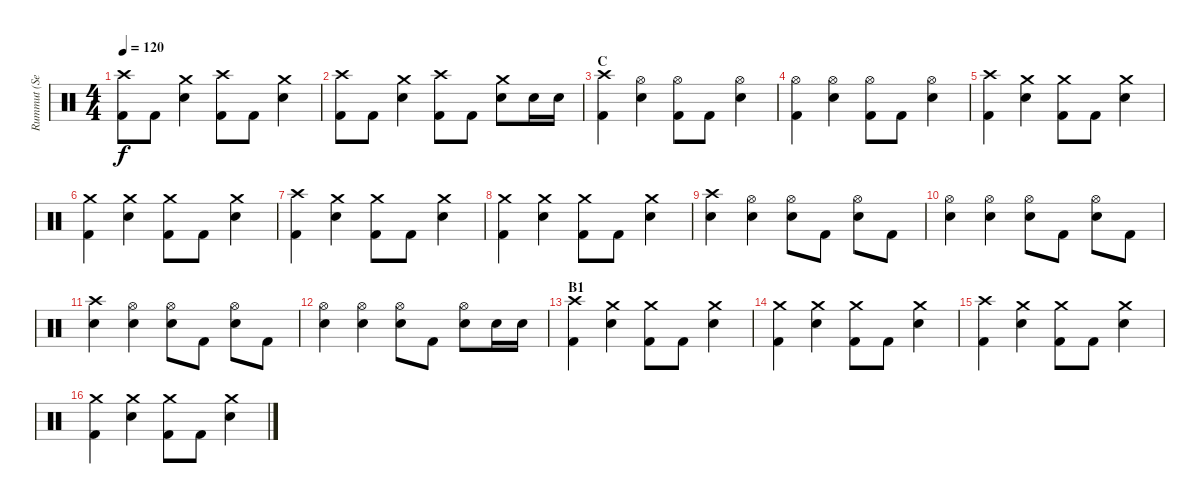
\track ("Rummut (Seppo Pohjolainen)" "Rummut (Se") {instrument percussion}
\staff {score}
\articulation defaults
\ts (4 4)
\tempo 120
\clef neutral
\ks c
("Crash high (hit)" "Kick (hit) 2").8{dy f} "Kick (hit) 2".8 ("Crash medium (hit)" "Electric Snare (hit)").4 ("Crash high (hit)" "Kick (hit) 2").8 "Kick (hit) 2".8 ("Crash medium (hit)" "Electric Snare (hit)").4 |
("Crash high (hit)" "Kick (hit) 2").8 "Kick (hit) 2".8 ("Crash medium (hit)" "Electric Snare (hit)").4 ("Crash high (hit)" "Kick (hit) 2").8 "Kick (hit) 2".8 ("Crash medium (hit)" "Electric Snare (hit)").8 "Electric Snare (hit)".16 "Electric Snare (hit)".16 |
\section ("" "C")
("Crash high (hit)" "Kick (hit) 2").4 ("Hi-Hat (open)" "Electric Snare (hit)").4 ("Hi-Hat (open)" "Kick (hit) 2").8 "Kick (hit) 2".8 ("Hi-Hat (open)" "Electric Snare (hit)").4 |
("Hi-Hat (open)" "Kick (hit) 2").4 ("Hi-Hat (open)" "Electric Snare (hit)").4 ("Hi-Hat (open)" "Kick (hit) 2").8 "Kick (hit) 2".8 ("Hi-Hat (open)" "Electric Snare (hit)").4 |
("Crash high (hit)" "Kick (hit) 2").4 ("Crash medium (hit)" "Electric Snare (hit)").4 ("Crash medium (hit)" "Kick (hit) 2").8 "Kick (hit) 2".8 ("Crash medium (hit)" "Electric Snare (hit)").4 |
("Crash medium (hit)" "Kick (hit) 2").4 ("Crash medium (hit)" "Electric Snare (hit)").4 ("Crash medium (hit)" "Kick (hit) 2").8 "Kick (hit) 2".8 ("Crash medium (hit)" "Electric Snare (hit)").4 |
("Crash high (hit)" "Kick (hit) 2").4 ("Crash medium (hit)" "Electric Snare (hit)").4 ("Crash medium (hit)" "Kick (hit) 2").8 "Kick (hit) 2".8 ("Crash medium (hit)" "Electric Snare (hit)").4 |
("Crash medium (hit)" "Kick (hit) 2").4 ("Crash medium (hit)" "Electric Snare (hit)").4 ("Crash medium (hit)" "Kick (hit) 2").8 "Kick (hit) 2".8 ("Crash medium (hit)" "Electric Snare (hit)").4 |
("Crash high (hit)" "Electric Snare (hit)").4 ("Hi-Hat (open)" "Electric Snare (hit)").4 ("Hi-Hat (open)" "Electric Snare (hit)").8 "Kick (hit) 2".8 ("Hi-Hat (open)" "Electric Snare (hit)").8 "Kick (hit) 2".8 |
("Hi-Hat (open)" "Electric Snare (hit)").4 ("Hi-Hat (open)" "Electric Snare (hit)").4 ("Hi-Hat (open)" "Electric Snare (hit)").8 "Kick (hit) 2".8 ("Hi-Hat (open)" "Electric Snare (hit)").8 "Kick (hit) 2".8 |
("Crash high (hit)" "Electric Snare (hit)").4 ("Hi-Hat (open)" "Electric Snare (hit)").4 ("Hi-Hat (open)" "Electric Snare (hit)").8 "Kick (hit) 2".8 ("Hi-Hat (open)" "Electric Snare (hit)").8 "Kick (hit) 2".8 |
("Hi-Hat (open)" "Electric Snare (hit)").4 ("Hi-Hat (open)" "Electric Snare (hit)").4 ("Hi-Hat (open)" "Electric Snare (hit)").8 "Kick (hit) 2".8 ("Hi-Hat (open)" "Electric Snare (hit)").8 "Electric Snare (hit)".16 "Electric Snare (hit)".16 |
\section ("" "B1")
("Crash high (hit)" "Kick (hit) 2").4 ("Crash medium (hit)" "Electric Snare (hit)").4 ("Crash medium (hit)" "Kick (hit) 2").8 "Kick (hit) 2".8 ("Crash medium (hit)" "Electric Snare (hit)").4 |
("Crash medium (hit)" "Kick (hit) 2").4 ("Crash medium (hit)" "Electric Snare (hit)").4 ("Crash medium (hit)" "Kick (hit) 2").8 "Kick (hit) 2".8 ("Crash medium (hit)" "Electric Snare (hit)").4 |
("Crash high (hit)" "Kick (hit) 2").4 ("Crash medium (hit)" "Electric Snare (hit)").4 ("Crash medium (hit)" "Kick (hit) 2").8 "Kick (hit) 2".8 ("Crash medium (hit)" "Electric Snare (hit)").4 |
("Crash medium (hit)" "Kick (hit) 2").4 ("Crash medium (hit)" "Electric Snare (hit)").4 ("Crash medium (hit)" "Kick (hit) 2").8 "Kick (hit) 2".8 ("Crash medium (hit)" "Electric Snare (hit)").4
